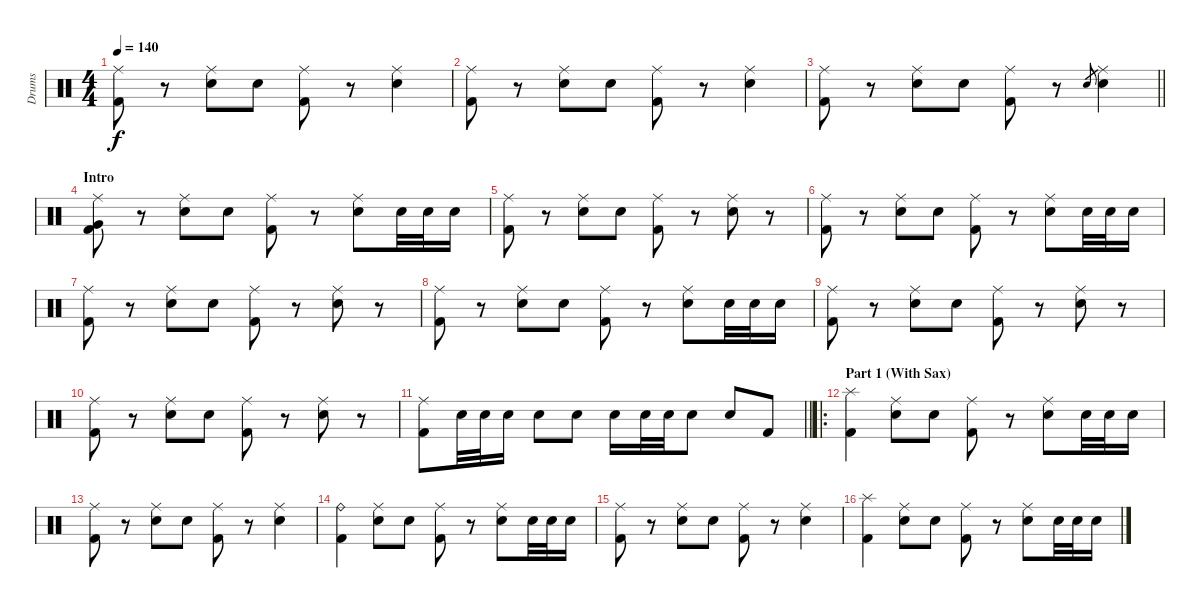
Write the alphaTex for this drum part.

\track ("Drums" "Drums") {instrument percussion}
\staff {score}
\articulation defaults
\ts (4 4)
\tempo 140
\clef neutral
\ks c
("Ride (middle)" "Kick (hit) 2").8{dy f} r.8 ("Ride (middle)" "Snare (hit) 2").8 "Snare (hit) 2".8 ("Ride (middle)" "Kick (hit) 2").8 r.8 ("Ride (middle)" "Snare (hit) 2").4 |
("Ride (middle)" "Kick (hit) 2").8 r.8 ("Ride (middle)" "Snare (hit) 2").8 "Snare (hit) 2".8 ("Ride (middle)" "Kick (hit) 2").8 r.8 ("Ride (middle)" "Snare (hit) 2").4 |
\barLineRight lightlight
("Ride (middle)" "Kick (hit) 2").8 r.8 ("Ride (middle)" "Snare (hit) 2").8 "Snare (hit) 2".8 ("Ride (middle)" "Kick (hit) 2").8 r.8 "Snare (hit) 2".8{gr} ("Ride (middle)" "Snare (hit) 2").4 |
\section ("" "Intro")
("Ride (middle)" "Very Low Tom (hit)" "Kick (hit) 2").8 r.8 ("Ride (middle)" "Snare (hit) 2").8 "Snare (hit) 2".8 ("Ride (middle)" "Kick (hit) 2").8 r.8 ("Ride (middle)" "Snare (hit) 2").8 "Snare (hit) 2".32 "Snare (hit) 2".32 "Snare (hit) 2".16 |
("Ride (middle)" "Kick (hit) 2").8 r.8 ("Ride (middle)" "Snare (hit) 2").8 "Snare (hit) 2".8 ("Ride (middle)" "Kick (hit) 2").8 r.8 ("Ride (middle)" "Snare (hit) 2").8 r.8 |
("Ride (middle)" "Kick (hit) 2").8 r.8 ("Ride (middle)" "Snare (hit) 2").8 "Snare (hit) 2".8 ("Ride (middle)" "Kick (hit) 2").8 r.8 ("Ride (middle)" "Snare (hit) 2").8 "Snare (hit) 2".32 "Snare (hit) 2".32 "Snare (hit) 2".16 |
("Ride (middle)" "Kick (hit) 2").8 r.8 ("Ride (middle)" "Snare (hit) 2").8 "Snare (hit) 2".8 ("Ride (middle)" "Kick (hit) 2").8 r.8 ("Ride (middle)" "Snare (hit) 2").8 r.8 |
("Ride (middle)" "Kick (hit) 2").8 r.8 ("Ride (middle)" "Snare (hit) 2").8 "Snare (hit) 2".8 ("Ride (middle)" "Kick (hit) 2").8 r.8 ("Ride (middle)" "Snare (hit) 2").8 "Snare (hit) 2".32 "Snare (hit) 2".32 "Snare (hit) 2".16 |
("Ride (middle)" "Kick (hit) 2").8 r.8 ("Ride (middle)" "Snare (hit) 2").8 "Snare (hit) 2".8 ("Ride (middle)" "Kick (hit) 2").8 r.8 ("Ride (middle)" "Snare (hit) 2").8 r.8 |
("Ride (middle)" "Kick (hit) 2").8 r.8 ("Ride (middle)" "Snare (hit) 2").8 "Snare (hit) 2".8 ("Ride (middle)" "Kick (hit) 2").8 r.8 ("Ride (middle)" "Snare (hit) 2").8 r.8 |
\barLineRight lightlight
("Ride (middle)" "Kick (hit) 2").8 "Snare (hit) 2".32 "Snare (hit) 2".32 "Snare (hit) 2".16 "Snare (hit) 2".8 "Snare (hit) 2".8 "Snare (hit) 2".16 "Snare (hit) 2".32 "Snare (hit) 2".32 "Snare (hit) 2".8 "Snare (hit) 2".8 "Kick (hit) 2".8 |
\ro
\section ("" "Part 1 (With Sax)")
("Splash (hit)" "Kick (hit) 2").4 ("Ride (middle)" "Snare (hit) 2").8 "Snare (hit) 2".8 ("Ride (middle)" "Kick (hit) 2").8 r.8 ("Ride (middle)" "Snare (hit) 2").8 "Snare (hit) 2".32 "Snare (hit) 2".32 "Snare (hit) 2".16 |
("Ride (middle)" "Kick (hit) 2").8 r.8 ("Ride (middle)" "Snare (hit) 2").8 "Snare (hit) 2".8 ("Ride (middle)" "Kick (hit) 2").8 r.8 ("Ride (middle)" "Snare (hit) 2").4 |
("Ride (bell)" "Kick (hit) 2").4 ("Ride (middle)" "Snare (hit) 2").8 "Snare (hit) 2".8 ("Ride (middle)" "Kick (hit) 2").8 r.8 ("Ride (middle)" "Snare (hit) 2").8 "Snare (hit) 2".32 "Snare (hit) 2".32 "Snare (hit) 2".16 |
("Ride (middle)" "Kick (hit) 2").8 r.8 ("Ride (middle)" "Snare (hit) 2").8 "Snare (hit) 2".8 ("Ride (middle)" "Kick (hit) 2").8 r.8 ("Ride (middle)" "Snare (hit) 2").4 |
("Splash (hit)" "Kick (hit) 2").4 ("Ride (middle)" "Snare (hit) 2").8 "Snare (hit) 2".8 ("Ride (middle)" "Kick (hit) 2").8 r.8 ("Ride (middle)" "Snare (hit) 2").8 "Snare (hit) 2".32 "Snare (hit) 2".32 "Snare (hit) 2".16
